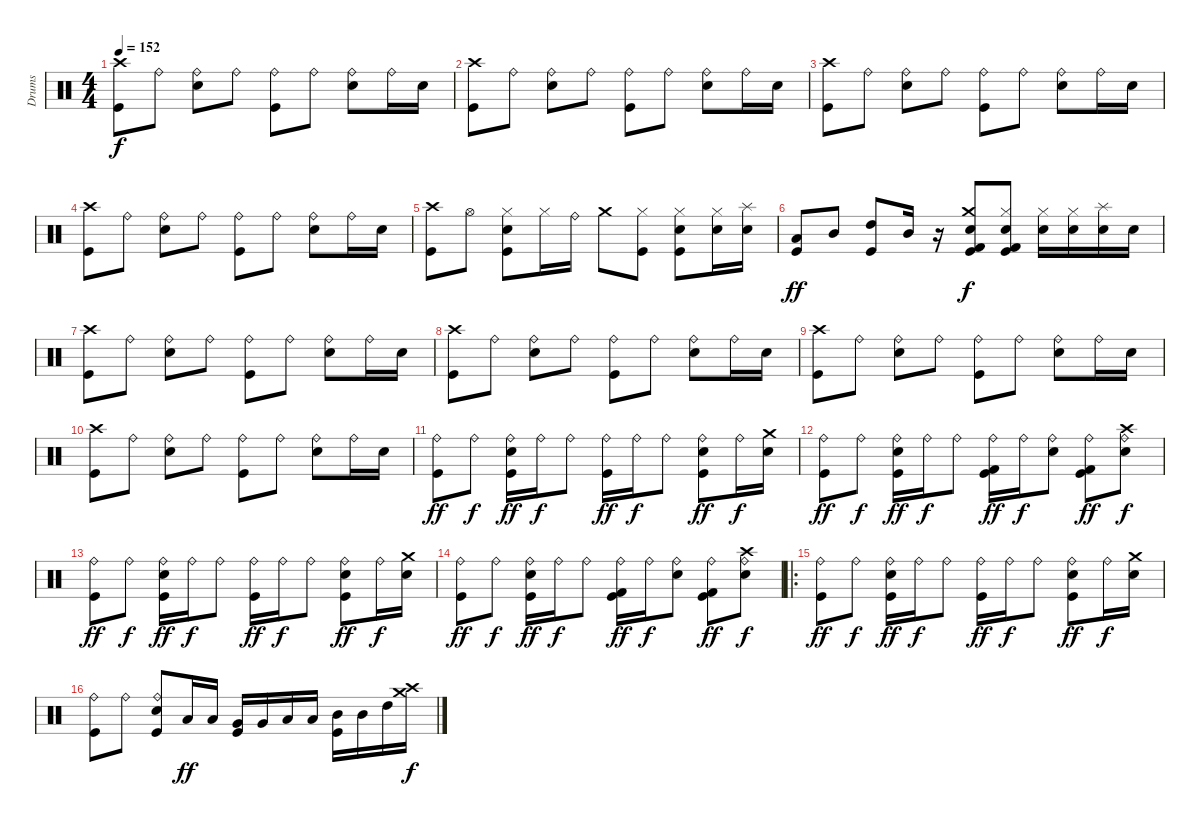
\track ("Drums" "Drums") {instrument percussion}
\staff {score}
\articulation defaults
\ts (4 4)
\tempo 152
\clef neutral
\ks c
("Crash high (hit)" "Kick (hit)").8{dy f} "Ride (bell)".8 ("Ride (bell)" "Electric Snare (hit)").8 "Ride (bell)".8 ("Ride (bell)" "Kick (hit)").8 "Ride (bell)".8 ("Ride (bell)" "Electric Snare (hit)").8 "Ride (bell)".16 "Electric Snare (hit)".16 |
("Crash high (hit)" "Kick (hit)").8 "Ride (bell)".8 ("Ride (bell)" "Electric Snare (hit)").8 "Ride (bell)".8 ("Ride (bell)" "Kick (hit)").8 "Ride (bell)".8 ("Ride (bell)" "Electric Snare (hit)").8 "Ride (bell)".16 "Electric Snare (hit)".16 |
("Crash high (hit)" "Kick (hit)").8 "Ride (bell)".8 ("Ride (bell)" "Electric Snare (hit)").8 "Ride (bell)".8 ("Ride (bell)" "Kick (hit)").8 "Ride (bell)".8 ("Ride (bell)" "Electric Snare (hit)").8 "Ride (bell)".16 "Electric Snare (hit)".16 |
("Crash high (hit)" "Kick (hit)").8 "Ride (bell)".8 ("Ride (bell)" "Electric Snare (hit)").8 "Ride (bell)".8 ("Ride (bell)" "Kick (hit)").8 "Ride (bell)".8 ("Ride (bell)" "Electric Snare (hit)").8 "Ride (bell)".16 "Electric Snare (hit)".16 |
("Crash high (hit)" "Kick (hit)").8 "Hi-Hat (open)".8 ("Hi-Hat (closed)" "Electric Snare (hit)" "Kick (hit)").8 "Hi-Hat (closed)".16 "Ride (bell)".16 "Crash medium (hit)".8 ("Hi-Hat (closed)" "Kick (hit)").8 ("Hi-Hat (closed)" "Electric Snare (hit)" "Kick (hit)").8 ("Hi-Hat (closed)" "Electric Snare (hit)").16 ("Splash (hit)" "Electric Snare (hit)").16 |
("Low Tom (hit)" "Kick (hit)").8{dy ff} "Mid Tom (hit)".8 ("High Tom (hit)" "Kick (hit)").8 "Mid Tom (hit)".16 r.16 ("Crash medium (hit)" "Electric Snare (hit)" "Kick (hit) 2" "Kick (hit)").8{dy f} ("Hi-Hat (closed)" "Electric Snare (hit)" "Kick (hit) 2" "Kick (hit)").8 ("Hi-Hat (closed)" "Electric Snare (hit)").16 ("Hi-Hat (closed)" "Electric Snare (hit)").16 ("Splash (hit)" "Electric Snare (hit)").16 "Electric Snare (hit)".16 |
("Crash high (hit)" "Kick (hit)").8 "Ride (bell)".8 ("Ride (bell)" "Electric Snare (hit)").8 "Ride (bell)".8 ("Ride (bell)" "Kick (hit)").8 "Ride (bell)".8 ("Ride (bell)" "Electric Snare (hit)").8 "Ride (bell)".16 "Electric Snare (hit)".16 |
("Crash high (hit)" "Kick (hit)").8 "Ride (bell)".8 ("Ride (bell)" "Electric Snare (hit)").8 "Ride (bell)".8 ("Ride (bell)" "Kick (hit)").8 "Ride (bell)".8 ("Ride (bell)" "Electric Snare (hit)").8 "Ride (bell)".16 "Electric Snare (hit)".16 |
("Crash high (hit)" "Kick (hit)").8 "Ride (bell)".8 ("Ride (bell)" "Electric Snare (hit)").8 "Ride (bell)".8 ("Ride (bell)" "Kick (hit)").8 "Ride (bell)".8 ("Ride (bell)" "Electric Snare (hit)").8 "Ride (bell)".16 "Electric Snare (hit)".16 |
("Crash high (hit)" "Kick (hit)").8 "Ride (bell)".8 ("Ride (bell)" "Electric Snare (hit)").8 "Ride (bell)".8 ("Ride (bell)" "Kick (hit)").8 "Ride (bell)".8 ("Ride (bell)" "Electric Snare (hit)").8 "Ride (bell)".16 "Electric Snare (hit)".16 |
("Ride (bell)" "Kick (hit)").8{dy ff} "Ride (bell)".8{dy f} ("Ride (bell)" "Electric Snare (hit)" "Kick (hit)").16{dy ff} "Ride (bell)".16{dy f} "Ride (bell)".8 ("Ride (bell)" "Kick (hit)").16{dy ff} "Ride (bell)".16{dy f} "Ride (bell)".8 ("Ride (bell)" "Electric Snare (hit)" "Kick (hit)").8{dy ff} "Ride (bell)".16{dy f} ("Crash medium (hit)" "Electric Snare (hit)").16 |
("Ride (bell)" "Kick (hit)").8{dy ff} "Ride (bell)".8{dy f} ("Ride (bell)" "Electric Snare (hit)" "Kick (hit)").16{dy ff} "Ride (bell)".16{dy f} "Ride (bell)".8 ("Ride (bell)" "Kick (hit) 2" "Kick (hit)").16{dy ff} "Ride (bell)".16{dy f} ("Ride (bell)" "Electric Snare (hit)").8 ("Ride (bell)" "Kick (hit) 2" "Kick (hit)").8{dy ff} ("Ride (bell)" "Crash high (hit)" "Electric Snare (hit)").8{dy f} |
("Ride (bell)" "Kick (hit)").8{dy ff} "Ride (bell)".8{dy f} ("Ride (bell)" "Electric Snare (hit)" "Kick (hit)").16{dy ff} "Ride (bell)".16{dy f} "Ride (bell)".8 ("Ride (bell)" "Kick (hit)").16{dy ff} "Ride (bell)".16{dy f} "Ride (bell)".8 ("Ride (bell)" "Electric Snare (hit)" "Kick (hit)").8{dy ff} "Ride (bell)".16{dy f} ("Crash medium (hit)" "Electric Snare (hit)").16 |
("Ride (bell)" "Kick (hit)").8{dy ff} "Ride (bell)".8{dy f} ("Ride (bell)" "Electric Snare (hit)" "Kick (hit)").16{dy ff} "Ride (bell)".16{dy f} "Ride (bell)".8 ("Ride (bell)" "Kick (hit) 2" "Kick (hit)").16{dy ff} "Ride (bell)".16{dy f} ("Ride (bell)" "Electric Snare (hit)").8 ("Ride (bell)" "Kick (hit) 2" "Kick (hit)").8{dy ff} ("Ride (bell)" "Crash high (hit)" "Electric Snare (hit)").8{dy f} |
\ro
("Ride (bell)" "Kick (hit)").8{dy ff} "Ride (bell)".8{dy f} ("Ride (bell)" "Electric Snare (hit)" "Kick (hit)").16{dy ff} "Ride (bell)".16{dy f} "Ride (bell)".8 ("Ride (bell)" "Kick (hit)").16{dy ff} "Ride (bell)".16{dy f} "Ride (bell)".8 ("Ride (bell)" "Electric Snare (hit)" "Kick (hit)").8{dy ff} "Ride (bell)".16{dy f} ("Crash medium (hit)" "Electric Snare (hit)").16 |
("Ride (bell)" "Kick (hit)").8 "Ride (bell)".8 ("Ride (bell)" "Electric Snare (hit)" "Kick (hit)").8 "Low Floor Tom (hit)".16{dy ff} "Low Floor Tom (hit)".16 ("Very Low Tom (hit)" "Kick (hit)").16 "Very Low Tom (hit)".16 "Low Tom (hit)".16 "Low Tom (hit)".16 ("Mid Tom (hit)" "Kick (hit)").16 "Mid Tom (hit)".16 "High Tom (hit)".16 ("Crash high (hit)" "Crash medium (hit)").16{dy f}
